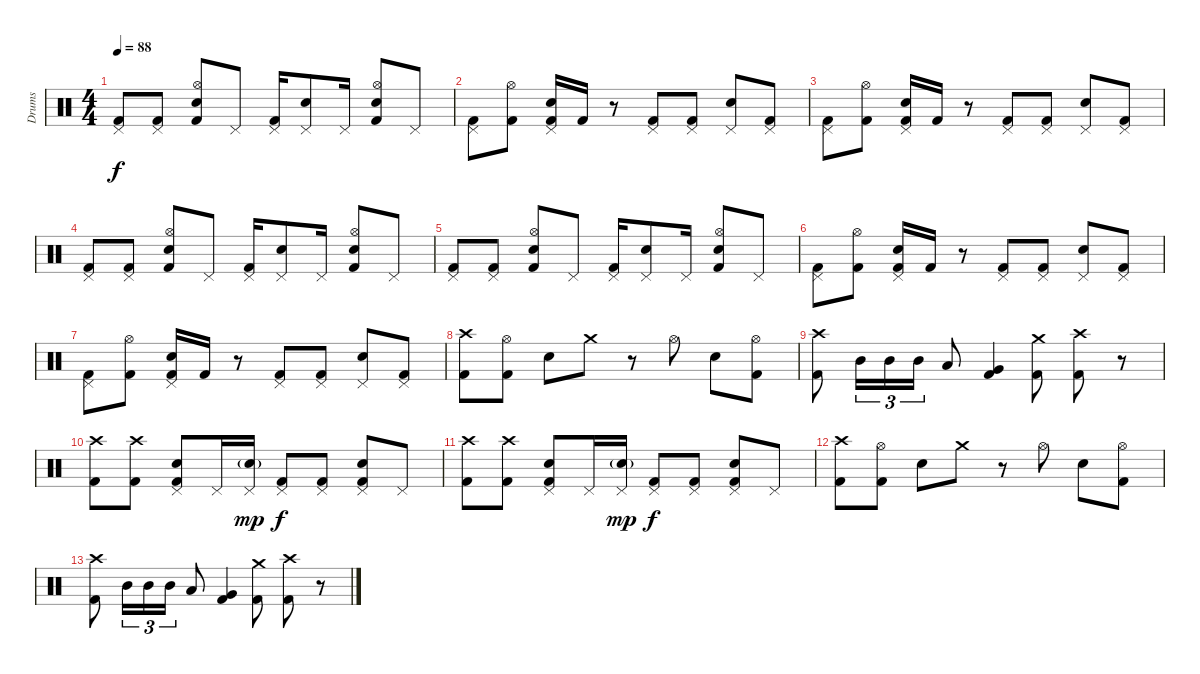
\track ("Drums" "Drums") {instrument percussion}
\staff {score}
\articulation defaults
\ts (4 4)
\tempo 88
\clef neutral
\ks c
("Pedal Hi-Hat (hit)" "Kick (hit) 2").8{dy f} ("Pedal Hi-Hat (hit)" "Kick (hit) 2").8 ("Hi-Hat (open)" "Snare (hit) 2" "Kick (hit) 2").8 "Pedal Hi-Hat (hit)".8 ("Pedal Hi-Hat (hit)" "Kick (hit) 2").16 ("Pedal Hi-Hat (hit)" "Snare (hit) 2").8 "Pedal Hi-Hat (hit)".16 ("Hi-Hat (open)" "Snare (hit) 2" "Kick (hit) 2").8 "Pedal Hi-Hat (hit)".8 |
("Pedal Hi-Hat (hit)" "Kick (hit) 2").8 ("Hi-Hat (open)" "Kick (hit) 2").8 ("Pedal Hi-Hat (hit)" "Snare (hit) 2" "Kick (hit) 2").16 "Kick (hit) 2".16 r.8 ("Pedal Hi-Hat (hit)" "Kick (hit) 2").8 ("Pedal Hi-Hat (hit)" "Kick (hit) 2").8 ("Pedal Hi-Hat (hit)" "Snare (hit) 2").8 ("Pedal Hi-Hat (hit)" "Kick (hit) 2").8 |
("Pedal Hi-Hat (hit)" "Kick (hit) 2").8 ("Hi-Hat (open)" "Kick (hit) 2").8 ("Pedal Hi-Hat (hit)" "Snare (hit) 2" "Kick (hit) 2").16 "Kick (hit) 2".16 r.8 ("Pedal Hi-Hat (hit)" "Kick (hit) 2").8 ("Pedal Hi-Hat (hit)" "Kick (hit) 2").8 ("Pedal Hi-Hat (hit)" "Snare (hit) 2").8 ("Pedal Hi-Hat (hit)" "Kick (hit) 2").8 |
("Pedal Hi-Hat (hit)" "Kick (hit) 2").8 ("Pedal Hi-Hat (hit)" "Kick (hit) 2").8 ("Hi-Hat (open)" "Snare (hit) 2" "Kick (hit) 2").8 "Pedal Hi-Hat (hit)".8 ("Pedal Hi-Hat (hit)" "Kick (hit) 2").16 ("Pedal Hi-Hat (hit)" "Snare (hit) 2").8 "Pedal Hi-Hat (hit)".16 ("Hi-Hat (open)" "Snare (hit) 2" "Kick (hit) 2").8 "Pedal Hi-Hat (hit)".8 |
("Pedal Hi-Hat (hit)" "Kick (hit) 2").8 ("Pedal Hi-Hat (hit)" "Kick (hit) 2").8 ("Hi-Hat (open)" "Snare (hit) 2" "Kick (hit) 2").8 "Pedal Hi-Hat (hit)".8 ("Pedal Hi-Hat (hit)" "Kick (hit) 2").16 ("Pedal Hi-Hat (hit)" "Snare (hit) 2").8 "Pedal Hi-Hat (hit)".16 ("Hi-Hat (open)" "Snare (hit) 2" "Kick (hit) 2").8 "Pedal Hi-Hat (hit)".8 |
("Pedal Hi-Hat (hit)" "Kick (hit) 2").8 ("Hi-Hat (open)" "Kick (hit) 2").8 ("Pedal Hi-Hat (hit)" "Snare (hit) 2" "Kick (hit) 2").16 "Kick (hit) 2".16 r.8 ("Pedal Hi-Hat (hit)" "Kick (hit) 2").8 ("Pedal Hi-Hat (hit)" "Kick (hit) 2").8 ("Pedal Hi-Hat (hit)" "Snare (hit) 2").8 ("Pedal Hi-Hat (hit)" "Kick (hit) 2").8 |
("Pedal Hi-Hat (hit)" "Kick (hit) 2").8 ("Hi-Hat (open)" "Kick (hit) 2").8 ("Pedal Hi-Hat (hit)" "Snare (hit) 2" "Kick (hit) 2").16 "Kick (hit) 2".16 r.8 ("Pedal Hi-Hat (hit)" "Kick (hit) 2").8 ("Pedal Hi-Hat (hit)" "Kick (hit) 2").8 ("Pedal Hi-Hat (hit)" "Snare (hit) 2").8 ("Pedal Hi-Hat (hit)" "Kick (hit) 2").8 |
("Crash high (hit)" "Kick (hit) 2").8 ("Hi-Hat (open)" "Kick (hit) 2").8 "Snare (hit) 2".8 "Crash medium (hit)".8 r.8 "Hi-Hat (open)".8 "Snare (hit) 2".8 ("Hi-Hat (open)" "Kick (hit) 2").8 |
("Crash high (hit)" "Kick (hit) 2").8 "Mid Tom (hit)".16{tu (3 2)} "Mid Tom (hit)".16{tu (3 2)} "Mid Tom (hit)".16{tu (3 2)} "Low Tom (hit)".8 ("Very Low Tom (hit)" "Kick (hit) 2").4 ("Crash medium (hit)" "Kick (hit) 2").8 ("Crash high (hit)" "Kick (hit) 2").8 r.8 |
("Crash high (hit)" "Kick (hit) 2").8 ("Crash high (hit)" "Kick (hit) 2").8 ("Pedal Hi-Hat (hit)" "Snare (hit) 2" "Kick (hit) 2").8 "Pedal Hi-Hat (hit)".16 ("Pedal Hi-Hat (hit)" "Snare (hit) 2"{g}).16{dy mp} ("Pedal Hi-Hat (hit)" "Kick (hit) 2").8{dy f} ("Pedal Hi-Hat (hit)" "Kick (hit) 2").8 ("Pedal Hi-Hat (hit)" "Snare (hit) 2" "Kick (hit) 2").8 "Pedal Hi-Hat (hit)".8 |
("Crash high (hit)" "Kick (hit) 2").8 ("Crash high (hit)" "Kick (hit) 2").8 ("Pedal Hi-Hat (hit)" "Snare (hit) 2" "Kick (hit) 2").8 "Pedal Hi-Hat (hit)".16 ("Pedal Hi-Hat (hit)" "Snare (hit) 2"{g}).16{dy mp} ("Pedal Hi-Hat (hit)" "Kick (hit) 2").8{dy f} ("Pedal Hi-Hat (hit)" "Kick (hit) 2").8 ("Pedal Hi-Hat (hit)" "Snare (hit) 2" "Kick (hit) 2").8 "Pedal Hi-Hat (hit)".8 |
("Crash high (hit)" "Kick (hit) 2").8 ("Hi-Hat (open)" "Kick (hit) 2").8 "Snare (hit) 2".8 "Crash medium (hit)".8 r.8 "Hi-Hat (open)".8 "Snare (hit) 2".8 ("Hi-Hat (open)" "Kick (hit) 2").8 |
("Crash high (hit)" "Kick (hit) 2").8 "Mid Tom (hit)".16{tu (3 2)} "Mid Tom (hit)".16{tu (3 2)} "Mid Tom (hit)".16{tu (3 2)} "Low Tom (hit)".8 ("Very Low Tom (hit)" "Kick (hit) 2").4 ("Crash medium (hit)" "Kick (hit) 2").8 ("Crash high (hit)" "Kick (hit) 2").8 r.8
